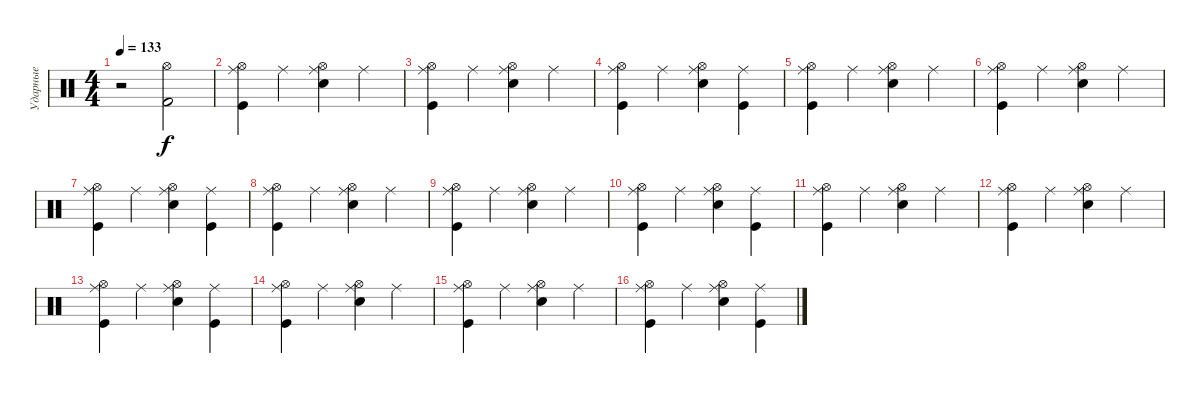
\track ("Ударные" "Ударные") {instrument percussion}
\staff {score}
\articulation defaults
\ts (4 4)
\tempo 133
\clef neutral
\ks c
r.2{dy f} ("Kick (hit) 2" "Hi-Hat (open)").2 |
("Hi-Hat (open)" "Kick (hit)" "Ride (middle)").4 "Ride (middle)".4 ("Hi-Hat (open)" "Electric Snare (hit)" "Ride (middle)").4 "Ride (middle)".4 |
("Hi-Hat (open)" "Kick (hit)" "Ride (middle)").4 "Ride (middle)".4 ("Hi-Hat (open)" "Electric Snare (hit)" "Ride (middle)").4 "Ride (middle)".4 |
("Hi-Hat (open)" "Kick (hit)" "Ride (middle)").4 "Ride (middle)".4 ("Hi-Hat (open)" "Electric Snare (hit)" "Ride (middle)").4 ("Kick (hit)" "Ride (middle)").4 |
("Hi-Hat (open)" "Kick (hit)" "Ride (middle)").4 "Ride (middle)".4 ("Hi-Hat (open)" "Electric Snare (hit)" "Ride (middle)").4 "Ride (middle)".4 |
("Hi-Hat (open)" "Kick (hit)" "Ride (middle)").4 "Ride (middle)".4 ("Hi-Hat (open)" "Electric Snare (hit)" "Ride (middle)").4 "Ride (middle)".4 |
("Hi-Hat (open)" "Kick (hit)" "Ride (middle)").4 "Ride (middle)".4 ("Hi-Hat (open)" "Electric Snare (hit)" "Ride (middle)").4 ("Kick (hit)" "Ride (middle)").4 |
("Hi-Hat (open)" "Kick (hit)" "Ride (middle)").4 "Ride (middle)".4 ("Hi-Hat (open)" "Electric Snare (hit)" "Ride (middle)").4 "Ride (middle)".4 |
("Hi-Hat (open)" "Kick (hit)" "Ride (middle)").4 "Ride (middle)".4 ("Hi-Hat (open)" "Electric Snare (hit)" "Ride (middle)").4 "Ride (middle)".4 |
("Hi-Hat (open)" "Kick (hit)" "Ride (middle)").4 "Ride (middle)".4 ("Hi-Hat (open)" "Electric Snare (hit)" "Ride (middle)").4 ("Kick (hit)" "Ride (middle)").4 |
("Hi-Hat (open)" "Kick (hit)" "Ride (middle)").4 "Ride (middle)".4 ("Hi-Hat (open)" "Electric Snare (hit)" "Ride (middle)").4 "Ride (middle)".4 |
("Hi-Hat (open)" "Kick (hit)" "Ride (middle)").4 "Ride (middle)".4 ("Hi-Hat (open)" "Electric Snare (hit)" "Ride (middle)").4 "Ride (middle)".4 |
("Hi-Hat (open)" "Kick (hit)" "Ride (middle)").4 "Ride (middle)".4 ("Hi-Hat (open)" "Electric Snare (hit)" "Ride (middle)").4 ("Kick (hit)" "Ride (middle)").4 |
("Hi-Hat (open)" "Kick (hit)" "Ride (middle)").4 "Ride (middle)".4 ("Hi-Hat (open)" "Electric Snare (hit)" "Ride (middle)").4 "Ride (middle)".4 |
("Hi-Hat (open)" "Kick (hit)" "Ride (middle)").4 "Ride (middle)".4 ("Hi-Hat (open)" "Electric Snare (hit)" "Ride (middle)").4 "Ride (middle)".4 |
("Hi-Hat (open)" "Kick (hit)" "Ride (middle)").4 "Ride (middle)".4 ("Hi-Hat (open)" "Electric Snare (hit)" "Ride (middle)").4 ("Kick (hit)" "Ride (middle)").4
